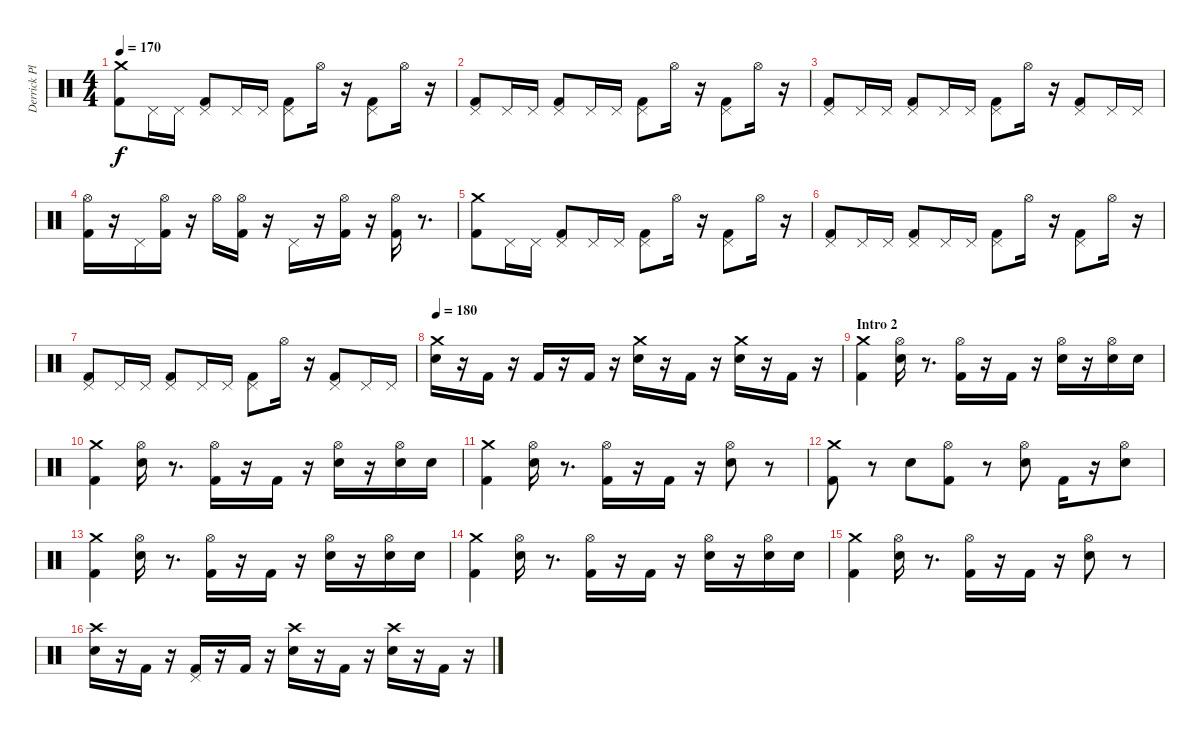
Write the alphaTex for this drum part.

\track ("Derrick Plourde" "Derrick Pl") {instrument percussion}
\staff {score}
\articulation defaults
\ts (4 4)
\tempo 170
\clef neutral
\ks c
("Crash medium (hit)" "Kick (hit) 2").8{dy f} "Pedal Hi-Hat (hit)".16 "Pedal Hi-Hat (hit)".16 ("Pedal Hi-Hat (hit)" "Kick (hit) 2").8 "Pedal Hi-Hat (hit)".16 "Pedal Hi-Hat (hit)".16 ("Pedal Hi-Hat (hit)" "Kick (hit) 2").8 "Hi-Hat (open)".16 r.16 ("Pedal Hi-Hat (hit)" "Kick (hit) 2").8 "Hi-Hat (open)".16 r.16 |
("Pedal Hi-Hat (hit)" "Kick (hit) 2").8 "Pedal Hi-Hat (hit)".16 "Pedal Hi-Hat (hit)".16 ("Pedal Hi-Hat (hit)" "Kick (hit) 2").8 "Pedal Hi-Hat (hit)".16 "Pedal Hi-Hat (hit)".16 ("Pedal Hi-Hat (hit)" "Kick (hit) 2").8 "Hi-Hat (open)".16 r.16 ("Pedal Hi-Hat (hit)" "Kick (hit) 2").8 "Hi-Hat (open)".16 r.16 |
("Pedal Hi-Hat (hit)" "Kick (hit) 2").8 "Pedal Hi-Hat (hit)".16 "Pedal Hi-Hat (hit)".16 ("Pedal Hi-Hat (hit)" "Kick (hit) 2").8 "Pedal Hi-Hat (hit)".16 "Pedal Hi-Hat (hit)".16 ("Pedal Hi-Hat (hit)" "Kick (hit) 2").8 "Hi-Hat (open)".16 r.16 ("Pedal Hi-Hat (hit)" "Kick (hit) 2").8 "Pedal Hi-Hat (hit)".16 "Pedal Hi-Hat (hit)".16 |
("Hi-Hat (open)" "Kick (hit) 2").16 r.16 "Pedal Hi-Hat (hit)".16 ("Hi-Hat (open)" "Kick (hit) 2").16 r.16 "Hi-Hat (open)".16 ("Hi-Hat (open)" "Kick (hit) 2").16 r.16 "Pedal Hi-Hat (hit)".16 r.16 ("Hi-Hat (open)" "Kick (hit) 2").16 r.16 ("Hi-Hat (open)" "Kick (hit) 2").16 r.8{d} |
("Crash medium (hit)" "Kick (hit) 2").8 "Pedal Hi-Hat (hit)".16 "Pedal Hi-Hat (hit)".16 ("Pedal Hi-Hat (hit)" "Kick (hit) 2").8 "Pedal Hi-Hat (hit)".16 "Pedal Hi-Hat (hit)".16 ("Pedal Hi-Hat (hit)" "Kick (hit) 2").8 "Hi-Hat (open)".16 r.16 ("Pedal Hi-Hat (hit)" "Kick (hit) 2").8 "Hi-Hat (open)".16 r.16 |
("Pedal Hi-Hat (hit)" "Kick (hit) 2").8 "Pedal Hi-Hat (hit)".16 "Pedal Hi-Hat (hit)".16 ("Pedal Hi-Hat (hit)" "Kick (hit) 2").8 "Pedal Hi-Hat (hit)".16 "Pedal Hi-Hat (hit)".16 ("Pedal Hi-Hat (hit)" "Kick (hit) 2").8 "Hi-Hat (open)".16 r.16 ("Pedal Hi-Hat (hit)" "Kick (hit) 2").8 "Hi-Hat (open)".16 r.16 |
("Pedal Hi-Hat (hit)" "Kick (hit) 2").8 "Pedal Hi-Hat (hit)".16 "Pedal Hi-Hat (hit)".16 ("Pedal Hi-Hat (hit)" "Kick (hit) 2").8 "Pedal Hi-Hat (hit)".16 "Pedal Hi-Hat (hit)".16 ("Pedal Hi-Hat (hit)" "Kick (hit) 2").8 "Hi-Hat (open)".16 r.16 ("Pedal Hi-Hat (hit)" "Kick (hit) 2").8 "Pedal Hi-Hat (hit)".16 "Pedal Hi-Hat (hit)".16 |
\tempo 180
("Crash medium (hit)" "Electric Snare (hit)").16 r.16 "Kick (hit) 2".16 r.16 "Kick (hit) 2".16 r.16 "Kick (hit) 2".16 r.16 ("Crash medium (hit)" "Electric Snare (hit)").16 r.16 "Kick (hit) 2".16 r.16 ("Crash medium (hit)" "Electric Snare (hit)").16 r.16 "Kick (hit) 2".16 r.16 |
\section ("" "Intro 2")
("Crash medium (hit)" "Kick (hit) 2").4 ("Hi-Hat (open)" "Electric Snare (hit)").16 r.8{d} ("Hi-Hat (open)" "Kick (hit) 2").16 r.16 "Kick (hit) 2".16 r.16 ("Hi-Hat (open)" "Electric Snare (hit)").16 r.16 ("Hi-Hat (open)" "Electric Snare (hit)").16 "Electric Snare (hit)".16 |
("Crash medium (hit)" "Kick (hit) 2").4 ("Hi-Hat (open)" "Electric Snare (hit)").16 r.8{d} ("Hi-Hat (open)" "Kick (hit) 2").16 r.16 "Kick (hit) 2".16 r.16 ("Hi-Hat (open)" "Electric Snare (hit)").16 r.16 ("Hi-Hat (open)" "Electric Snare (hit)").16 "Electric Snare (hit)".16 |
("Crash medium (hit)" "Kick (hit) 2").4 ("Hi-Hat (open)" "Electric Snare (hit)").16 r.8{d} ("Hi-Hat (open)" "Kick (hit) 2").16 r.16 "Kick (hit) 2".16 r.16 ("Hi-Hat (open)" "Electric Snare (hit)").8 r.8 |
("Crash medium (hit)" "Kick (hit) 2").8 r.8 "Electric Snare (hit)".8 ("Hi-Hat (open)" "Kick (hit) 2").8 r.8 ("Hi-Hat (open)" "Electric Snare (hit)").8 "Kick (hit) 2".16 r.16 ("Hi-Hat (open)" "Electric Snare (hit)").8 |
("Crash medium (hit)" "Kick (hit) 2").4 ("Hi-Hat (open)" "Electric Snare (hit)").16 r.8{d} ("Hi-Hat (open)" "Kick (hit) 2").16 r.16 "Kick (hit) 2".16 r.16 ("Hi-Hat (open)" "Electric Snare (hit)").16 r.16 ("Hi-Hat (open)" "Electric Snare (hit)").16 "Electric Snare (hit)".16 |
("Crash medium (hit)" "Kick (hit) 2").4 ("Hi-Hat (open)" "Electric Snare (hit)").16 r.8{d} ("Hi-Hat (open)" "Kick (hit) 2").16 r.16 "Kick (hit) 2".16 r.16 ("Hi-Hat (open)" "Electric Snare (hit)").16 r.16 ("Hi-Hat (open)" "Electric Snare (hit)").16 "Electric Snare (hit)".16 |
("Crash medium (hit)" "Kick (hit) 2").4 ("Hi-Hat (open)" "Electric Snare (hit)").16 r.8{d} ("Hi-Hat (open)" "Kick (hit) 2").16 r.16 "Kick (hit) 2".16 r.16 ("Hi-Hat (open)" "Electric Snare (hit)").8 r.8 |
("Crash high (hit)" "Electric Snare (hit)").16 r.16 "Kick (hit) 2".16 r.16 ("Pedal Hi-Hat (hit)" "Kick (hit) 2").16 r.16 "Kick (hit) 2".16 r.16 ("Crash high (hit)" "Electric Snare (hit)").16 r.16 "Kick (hit) 2".16 r.16 ("Crash high (hit)" "Electric Snare (hit)").16 r.16 "Kick (hit) 2".16 r.16
